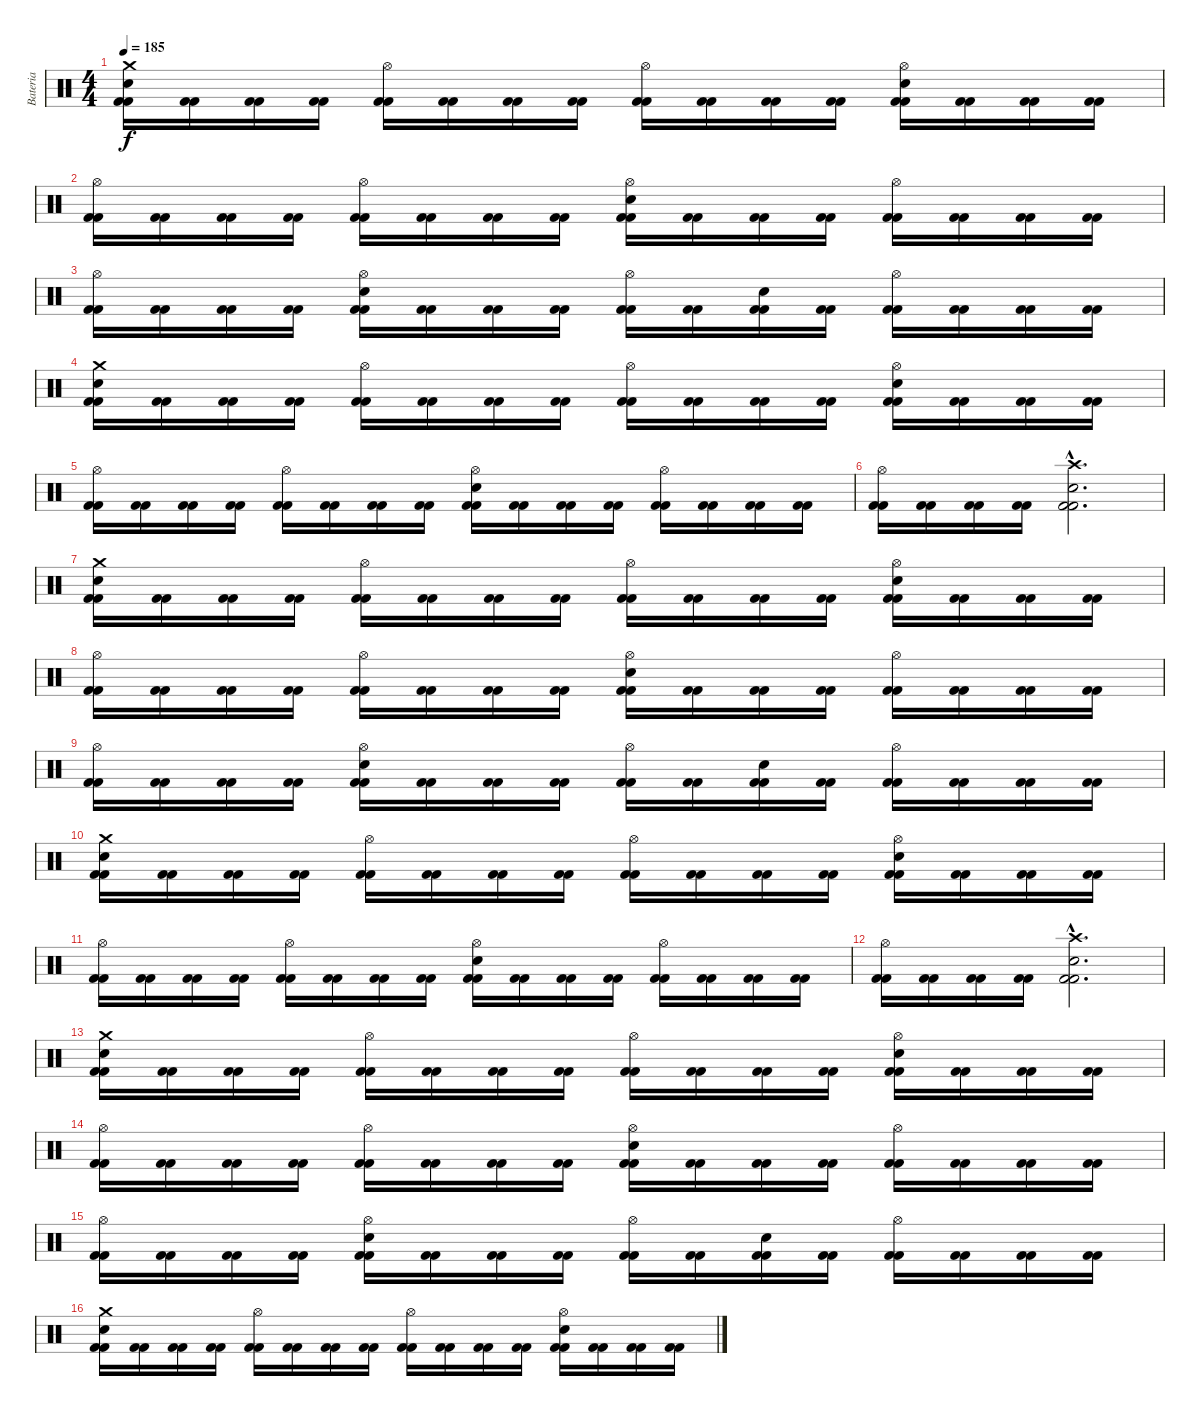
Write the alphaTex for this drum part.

\track ("Bateria" "Bateria") {instrument percussion}
\staff {score}
\articulation defaults
\ts (4 4)
\tempo 185
\clef neutral
\ks c
("Kick (hit) 2" "Kick (hit) 2" "Electric Snare (hit)" "Crash medium (hit)").16{dy f} ("Kick (hit) 2" "Kick (hit) 2").16 ("Kick (hit) 2" "Kick (hit) 2").16 ("Kick (hit) 2" "Kick (hit) 2").16 ("Kick (hit) 2" "Kick (hit) 2" "Hi-Hat (open)").16 ("Kick (hit) 2" "Kick (hit) 2").16 ("Kick (hit) 2" "Kick (hit) 2").16 ("Kick (hit) 2" "Kick (hit) 2").16 ("Kick (hit) 2" "Kick (hit) 2" "Hi-Hat (open)").16 ("Kick (hit) 2" "Kick (hit) 2").16 ("Kick (hit) 2" "Kick (hit) 2").16 ("Kick (hit) 2" "Kick (hit) 2").16 ("Kick (hit) 2" "Kick (hit) 2" "Electric Snare (hit)" "Hi-Hat (open)").16 ("Kick (hit) 2" "Kick (hit) 2").16 ("Kick (hit) 2" "Kick (hit) 2").16 ("Kick (hit) 2" "Kick (hit) 2").16 |
("Kick (hit) 2" "Kick (hit) 2" "Hi-Hat (open)").16 ("Kick (hit) 2" "Kick (hit) 2").16 ("Kick (hit) 2" "Kick (hit) 2").16 ("Kick (hit) 2" "Kick (hit) 2").16 ("Kick (hit) 2" "Kick (hit) 2" "Hi-Hat (open)").16 ("Kick (hit) 2" "Kick (hit) 2").16 ("Kick (hit) 2" "Kick (hit) 2").16 ("Kick (hit) 2" "Kick (hit) 2").16 ("Kick (hit) 2" "Kick (hit) 2" "Electric Snare (hit)" "Hi-Hat (open)").16 ("Kick (hit) 2" "Kick (hit) 2").16 ("Kick (hit) 2" "Kick (hit) 2").16 ("Kick (hit) 2" "Kick (hit) 2").16 ("Kick (hit) 2" "Kick (hit) 2" "Hi-Hat (open)").16 ("Kick (hit) 2" "Kick (hit) 2").16 ("Kick (hit) 2" "Kick (hit) 2").16 ("Kick (hit) 2" "Kick (hit) 2").16 |
("Kick (hit) 2" "Kick (hit) 2" "Hi-Hat (open)").16 ("Kick (hit) 2" "Kick (hit) 2").16 ("Kick (hit) 2" "Kick (hit) 2").16 ("Kick (hit) 2" "Kick (hit) 2").16 ("Kick (hit) 2" "Kick (hit) 2" "Electric Snare (hit)" "Hi-Hat (open)").16 ("Kick (hit) 2" "Kick (hit) 2").16 ("Kick (hit) 2" "Kick (hit) 2").16 ("Kick (hit) 2" "Kick (hit) 2").16 ("Kick (hit) 2" "Kick (hit) 2" "Hi-Hat (open)").16 ("Kick (hit) 2" "Kick (hit) 2").16 ("Kick (hit) 2" "Kick (hit) 2" "Electric Snare (hit)").16 ("Kick (hit) 2" "Kick (hit) 2").16 ("Kick (hit) 2" "Kick (hit) 2" "Hi-Hat (open)").16 ("Kick (hit) 2" "Kick (hit) 2").16 ("Kick (hit) 2" "Kick (hit) 2").16 ("Kick (hit) 2" "Kick (hit) 2").16 |
("Kick (hit) 2" "Kick (hit) 2" "Electric Snare (hit)" "Crash medium (hit)").16 ("Kick (hit) 2" "Kick (hit) 2").16 ("Kick (hit) 2" "Kick (hit) 2").16 ("Kick (hit) 2" "Kick (hit) 2").16 ("Kick (hit) 2" "Kick (hit) 2" "Hi-Hat (open)").16 ("Kick (hit) 2" "Kick (hit) 2").16 ("Kick (hit) 2" "Kick (hit) 2").16 ("Kick (hit) 2" "Kick (hit) 2").16 ("Kick (hit) 2" "Kick (hit) 2" "Hi-Hat (open)").16 ("Kick (hit) 2" "Kick (hit) 2").16 ("Kick (hit) 2" "Kick (hit) 2").16 ("Kick (hit) 2" "Kick (hit) 2").16 ("Kick (hit) 2" "Kick (hit) 2" "Electric Snare (hit)" "Hi-Hat (open)").16 ("Kick (hit) 2" "Kick (hit) 2").16 ("Kick (hit) 2" "Kick (hit) 2").16 ("Kick (hit) 2" "Kick (hit) 2").16 |
("Kick (hit) 2" "Kick (hit) 2" "Hi-Hat (open)").16 ("Kick (hit) 2" "Kick (hit) 2").16 ("Kick (hit) 2" "Kick (hit) 2").16 ("Kick (hit) 2" "Kick (hit) 2").16 ("Kick (hit) 2" "Kick (hit) 2" "Hi-Hat (open)").16 ("Kick (hit) 2" "Kick (hit) 2").16 ("Kick (hit) 2" "Kick (hit) 2").16 ("Kick (hit) 2" "Kick (hit) 2").16 ("Kick (hit) 2" "Kick (hit) 2" "Electric Snare (hit)" "Hi-Hat (open)").16 ("Kick (hit) 2" "Kick (hit) 2").16 ("Kick (hit) 2" "Kick (hit) 2").16 ("Kick (hit) 2" "Kick (hit) 2").16 ("Kick (hit) 2" "Kick (hit) 2" "Hi-Hat (open)").16 ("Kick (hit) 2" "Kick (hit) 2").16 ("Kick (hit) 2" "Kick (hit) 2").16 ("Kick (hit) 2" "Kick (hit) 2").16 |
("Kick (hit) 2" "Kick (hit) 2" "Hi-Hat (open)").16 ("Kick (hit) 2" "Kick (hit) 2").16 ("Kick (hit) 2" "Kick (hit) 2").16 ("Kick (hit) 2" "Kick (hit) 2").16 ("Kick (hit) 2"{hac} "Kick (hit) 2"{hac} "Electric Snare (hit)"{hac} "Crash high (hit)"{hac}).2{d} |
("Kick (hit) 2" "Kick (hit) 2" "Electric Snare (hit)" "Crash medium (hit)").16 ("Kick (hit) 2" "Kick (hit) 2").16 ("Kick (hit) 2" "Kick (hit) 2").16 ("Kick (hit) 2" "Kick (hit) 2").16 ("Kick (hit) 2" "Kick (hit) 2" "Hi-Hat (open)").16 ("Kick (hit) 2" "Kick (hit) 2").16 ("Kick (hit) 2" "Kick (hit) 2").16 ("Kick (hit) 2" "Kick (hit) 2").16 ("Kick (hit) 2" "Kick (hit) 2" "Hi-Hat (open)").16 ("Kick (hit) 2" "Kick (hit) 2").16 ("Kick (hit) 2" "Kick (hit) 2").16 ("Kick (hit) 2" "Kick (hit) 2").16 ("Kick (hit) 2" "Kick (hit) 2" "Electric Snare (hit)" "Hi-Hat (open)").16 ("Kick (hit) 2" "Kick (hit) 2").16 ("Kick (hit) 2" "Kick (hit) 2").16 ("Kick (hit) 2" "Kick (hit) 2").16 |
("Kick (hit) 2" "Kick (hit) 2" "Hi-Hat (open)").16 ("Kick (hit) 2" "Kick (hit) 2").16 ("Kick (hit) 2" "Kick (hit) 2").16 ("Kick (hit) 2" "Kick (hit) 2").16 ("Kick (hit) 2" "Kick (hit) 2" "Hi-Hat (open)").16 ("Kick (hit) 2" "Kick (hit) 2").16 ("Kick (hit) 2" "Kick (hit) 2").16 ("Kick (hit) 2" "Kick (hit) 2").16 ("Kick (hit) 2" "Kick (hit) 2" "Electric Snare (hit)" "Hi-Hat (open)").16 ("Kick (hit) 2" "Kick (hit) 2").16 ("Kick (hit) 2" "Kick (hit) 2").16 ("Kick (hit) 2" "Kick (hit) 2").16 ("Kick (hit) 2" "Kick (hit) 2" "Hi-Hat (open)").16 ("Kick (hit) 2" "Kick (hit) 2").16 ("Kick (hit) 2" "Kick (hit) 2").16 ("Kick (hit) 2" "Kick (hit) 2").16 |
("Kick (hit) 2" "Kick (hit) 2" "Hi-Hat (open)").16 ("Kick (hit) 2" "Kick (hit) 2").16 ("Kick (hit) 2" "Kick (hit) 2").16 ("Kick (hit) 2" "Kick (hit) 2").16 ("Kick (hit) 2" "Kick (hit) 2" "Electric Snare (hit)" "Hi-Hat (open)").16 ("Kick (hit) 2" "Kick (hit) 2").16 ("Kick (hit) 2" "Kick (hit) 2").16 ("Kick (hit) 2" "Kick (hit) 2").16 ("Kick (hit) 2" "Kick (hit) 2" "Hi-Hat (open)").16 ("Kick (hit) 2" "Kick (hit) 2").16 ("Kick (hit) 2" "Kick (hit) 2" "Electric Snare (hit)").16 ("Kick (hit) 2" "Kick (hit) 2").16 ("Kick (hit) 2" "Kick (hit) 2" "Hi-Hat (open)").16 ("Kick (hit) 2" "Kick (hit) 2").16 ("Kick (hit) 2" "Kick (hit) 2").16 ("Kick (hit) 2" "Kick (hit) 2").16 |
("Kick (hit) 2" "Kick (hit) 2" "Electric Snare (hit)" "Crash medium (hit)").16 ("Kick (hit) 2" "Kick (hit) 2").16 ("Kick (hit) 2" "Kick (hit) 2").16 ("Kick (hit) 2" "Kick (hit) 2").16 ("Kick (hit) 2" "Kick (hit) 2" "Hi-Hat (open)").16 ("Kick (hit) 2" "Kick (hit) 2").16 ("Kick (hit) 2" "Kick (hit) 2").16 ("Kick (hit) 2" "Kick (hit) 2").16 ("Kick (hit) 2" "Kick (hit) 2" "Hi-Hat (open)").16 ("Kick (hit) 2" "Kick (hit) 2").16 ("Kick (hit) 2" "Kick (hit) 2").16 ("Kick (hit) 2" "Kick (hit) 2").16 ("Kick (hit) 2" "Kick (hit) 2" "Electric Snare (hit)" "Hi-Hat (open)").16 ("Kick (hit) 2" "Kick (hit) 2").16 ("Kick (hit) 2" "Kick (hit) 2").16 ("Kick (hit) 2" "Kick (hit) 2").16 |
("Kick (hit) 2" "Kick (hit) 2" "Hi-Hat (open)").16 ("Kick (hit) 2" "Kick (hit) 2").16 ("Kick (hit) 2" "Kick (hit) 2").16 ("Kick (hit) 2" "Kick (hit) 2").16 ("Kick (hit) 2" "Kick (hit) 2" "Hi-Hat (open)").16 ("Kick (hit) 2" "Kick (hit) 2").16 ("Kick (hit) 2" "Kick (hit) 2").16 ("Kick (hit) 2" "Kick (hit) 2").16 ("Kick (hit) 2" "Kick (hit) 2" "Electric Snare (hit)" "Hi-Hat (open)").16 ("Kick (hit) 2" "Kick (hit) 2").16 ("Kick (hit) 2" "Kick (hit) 2").16 ("Kick (hit) 2" "Kick (hit) 2").16 ("Kick (hit) 2" "Kick (hit) 2" "Hi-Hat (open)").16 ("Kick (hit) 2" "Kick (hit) 2").16 ("Kick (hit) 2" "Kick (hit) 2").16 ("Kick (hit) 2" "Kick (hit) 2").16 |
("Kick (hit) 2" "Kick (hit) 2" "Hi-Hat (open)").16 ("Kick (hit) 2" "Kick (hit) 2").16 ("Kick (hit) 2" "Kick (hit) 2").16 ("Kick (hit) 2" "Kick (hit) 2").16 ("Kick (hit) 2"{hac} "Kick (hit) 2"{hac} "Electric Snare (hit)"{hac} "Crash high (hit)"{hac}).2{d} |
("Kick (hit) 2" "Kick (hit) 2" "Electric Snare (hit)" "Crash medium (hit)").16 ("Kick (hit) 2" "Kick (hit) 2").16 ("Kick (hit) 2" "Kick (hit) 2").16 ("Kick (hit) 2" "Kick (hit) 2").16 ("Kick (hit) 2" "Kick (hit) 2" "Hi-Hat (open)").16 ("Kick (hit) 2" "Kick (hit) 2").16 ("Kick (hit) 2" "Kick (hit) 2").16 ("Kick (hit) 2" "Kick (hit) 2").16 ("Kick (hit) 2" "Kick (hit) 2" "Hi-Hat (open)").16 ("Kick (hit) 2" "Kick (hit) 2").16 ("Kick (hit) 2" "Kick (hit) 2").16 ("Kick (hit) 2" "Kick (hit) 2").16 ("Kick (hit) 2" "Kick (hit) 2" "Electric Snare (hit)" "Hi-Hat (open)").16 ("Kick (hit) 2" "Kick (hit) 2").16 ("Kick (hit) 2" "Kick (hit) 2").16 ("Kick (hit) 2" "Kick (hit) 2").16 |
("Kick (hit) 2" "Kick (hit) 2" "Hi-Hat (open)").16 ("Kick (hit) 2" "Kick (hit) 2").16 ("Kick (hit) 2" "Kick (hit) 2").16 ("Kick (hit) 2" "Kick (hit) 2").16 ("Kick (hit) 2" "Kick (hit) 2" "Hi-Hat (open)").16 ("Kick (hit) 2" "Kick (hit) 2").16 ("Kick (hit) 2" "Kick (hit) 2").16 ("Kick (hit) 2" "Kick (hit) 2").16 ("Kick (hit) 2" "Kick (hit) 2" "Electric Snare (hit)" "Hi-Hat (open)").16 ("Kick (hit) 2" "Kick (hit) 2").16 ("Kick (hit) 2" "Kick (hit) 2").16 ("Kick (hit) 2" "Kick (hit) 2").16 ("Kick (hit) 2" "Kick (hit) 2" "Hi-Hat (open)").16 ("Kick (hit) 2" "Kick (hit) 2").16 ("Kick (hit) 2" "Kick (hit) 2").16 ("Kick (hit) 2" "Kick (hit) 2").16 |
("Kick (hit) 2" "Kick (hit) 2" "Hi-Hat (open)").16 ("Kick (hit) 2" "Kick (hit) 2").16 ("Kick (hit) 2" "Kick (hit) 2").16 ("Kick (hit) 2" "Kick (hit) 2").16 ("Kick (hit) 2" "Kick (hit) 2" "Electric Snare (hit)" "Hi-Hat (open)").16 ("Kick (hit) 2" "Kick (hit) 2").16 ("Kick (hit) 2" "Kick (hit) 2").16 ("Kick (hit) 2" "Kick (hit) 2").16 ("Kick (hit) 2" "Kick (hit) 2" "Hi-Hat (open)").16 ("Kick (hit) 2" "Kick (hit) 2").16 ("Kick (hit) 2" "Kick (hit) 2" "Electric Snare (hit)").16 ("Kick (hit) 2" "Kick (hit) 2").16 ("Kick (hit) 2" "Kick (hit) 2" "Hi-Hat (open)").16 ("Kick (hit) 2" "Kick (hit) 2").16 ("Kick (hit) 2" "Kick (hit) 2").16 ("Kick (hit) 2" "Kick (hit) 2").16 |
("Kick (hit) 2" "Kick (hit) 2" "Electric Snare (hit)" "Crash medium (hit)").16 ("Kick (hit) 2" "Kick (hit) 2").16 ("Kick (hit) 2" "Kick (hit) 2").16 ("Kick (hit) 2" "Kick (hit) 2").16 ("Kick (hit) 2" "Kick (hit) 2" "Hi-Hat (open)").16 ("Kick (hit) 2" "Kick (hit) 2").16 ("Kick (hit) 2" "Kick (hit) 2").16 ("Kick (hit) 2" "Kick (hit) 2").16 ("Kick (hit) 2" "Kick (hit) 2" "Hi-Hat (open)").16 ("Kick (hit) 2" "Kick (hit) 2").16 ("Kick (hit) 2" "Kick (hit) 2").16 ("Kick (hit) 2" "Kick (hit) 2").16 ("Kick (hit) 2" "Kick (hit) 2" "Electric Snare (hit)" "Hi-Hat (open)").16 ("Kick (hit) 2" "Kick (hit) 2").16 ("Kick (hit) 2" "Kick (hit) 2").16 ("Kick (hit) 2" "Kick (hit) 2").16
